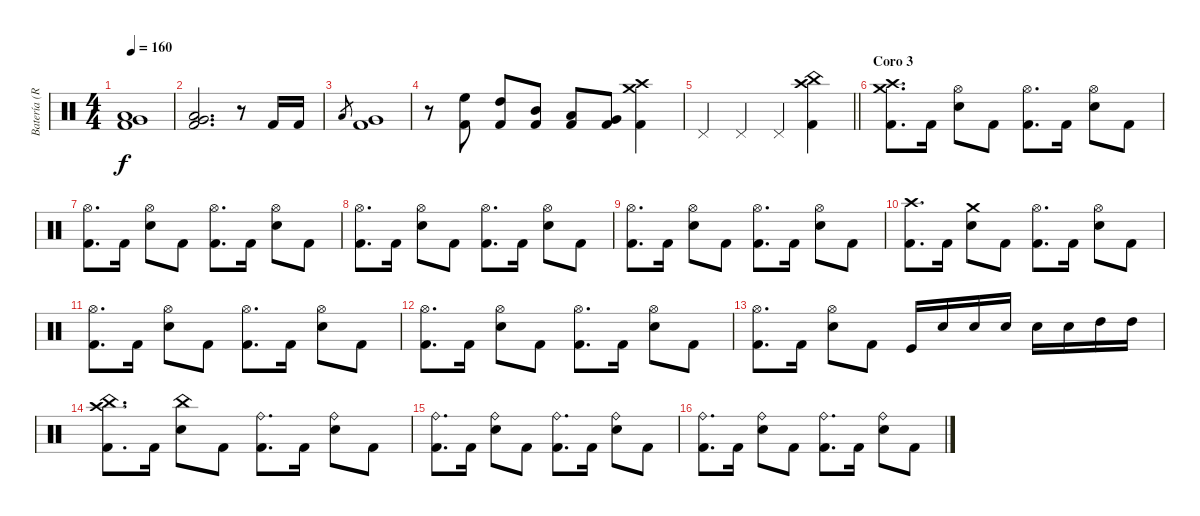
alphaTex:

\track ("Batería (Robert)" "Batería (R") {instrument percussion}
\staff {score}
\articulation defaults
\ts (4 4)
\tempo 160
\clef neutral
\ks c
("Kick (hit) 2" "Very Low Tom (hit)" "Low Tom (hit)").1{dy f} |
("Kick (hit) 2" "Very Low Tom (hit)" "Low Tom (hit)").2{d} r.8 "Kick (hit) 2".16 "Kick (hit) 2".16 |
"Low Tom (hit)".8{gr} ("Kick (hit) 2" "Very Low Tom (hit)").1 |
r.8 ("Kick (hit) 2" "High Floor Tom (hit)").8 ("High Tom (hit)" "Kick (hit) 2").8 ("Mid Tom (hit)" "Kick (hit) 2").8 ("Low Tom (hit)" "Kick (hit) 2").8 ("Very Low Tom (hit)" "Kick (hit) 2").8 ("Kick (hit) 2" "Crash medium (hit)" "Crash high (hit)").4 |
\barLineRight lightlight "Pedal Hi-Hat (hit)".4 "Pedal Hi-Hat (hit)".4 "Pedal Hi-Hat (hit)".4
("Kick (hit) 2" "China (hit)" "Crash high (hit)").4 |
\section ("" "Coro 3")
("Crash high (hit)" "Crash medium (hit)" "Kick (hit) 2").8{d} "Kick (hit) 2".16 ("Hi-Hat (open)" "Electric Snare (hit)").8 "Kick (hit) 2".8 ("Kick (hit) 2" "Hi-Hat (open)").8{d} "Kick (hit) 2".16 ("Hi-Hat (open)" "Electric Snare (hit)").8 "Kick (hit) 2".8 |
("Hi-Hat (open)" "Kick (hit) 2").8{d} "Kick (hit) 2".16 ("Hi-Hat (open)" "Electric Snare (hit)").8 "Kick (hit) 2".8 ("Kick (hit) 2" "Hi-Hat (open)").8{d} "Kick (hit) 2".16 ("Hi-Hat (open)" "Electric Snare (hit)").8 "Kick (hit) 2".8 |
("Hi-Hat (open)" "Kick (hit) 2").8{d} "Kick (hit) 2".16 ("Hi-Hat (open)" "Electric Snare (hit)").8 "Kick (hit) 2".8 ("Kick (hit) 2" "Hi-Hat (open)").8{d} "Kick (hit) 2".16 ("Hi-Hat (open)" "Electric Snare (hit)").8 "Kick (hit) 2".8 |
("Hi-Hat (open)" "Kick (hit) 2").8{d} "Kick (hit) 2".16 ("Hi-Hat (open)" "Electric Snare (hit)").8 "Kick (hit) 2".8 ("Kick (hit) 2" "Hi-Hat (open)").8{d} "Kick (hit) 2".16 ("Hi-Hat (open)" "Electric Snare (hit)").8 "Kick (hit) 2".8 |
("Crash high (hit)" "Kick (hit) 2").8{d} "Kick (hit) 2".16 ("Crash medium (hit)" "Electric Snare (hit)").8 "Kick (hit) 2".8 ("Kick (hit) 2" "Hi-Hat (open)").8{d} "Kick (hit) 2".16 ("Hi-Hat (open)" "Electric Snare (hit)").8 "Kick (hit) 2".8 |
("Hi-Hat (open)" "Kick (hit) 2").8{d} "Kick (hit) 2".16 ("Hi-Hat (open)" "Electric Snare (hit)").8 "Kick (hit) 2".8 ("Kick (hit) 2" "Hi-Hat (open)").8{d} "Kick (hit) 2".16 ("Hi-Hat (open)" "Electric Snare (hit)").8 "Kick (hit) 2".8 |
("Hi-Hat (open)" "Kick (hit) 2").8{d} "Kick (hit) 2".16 ("Hi-Hat (open)" "Electric Snare (hit)").8 "Kick (hit) 2".8 ("Kick (hit) 2" "Hi-Hat (open)").8{d} "Kick (hit) 2".16 ("Hi-Hat (open)" "Electric Snare (hit)").8 "Kick (hit) 2".8 |
("Hi-Hat (open)" "Kick (hit) 2").8{d} "Kick (hit) 2".16 ("Hi-Hat (open)" "Electric Snare (hit)").8 "Kick (hit) 2".8 "Kick (hit)".16 "Electric Snare (hit)".16 "Electric Snare (hit)".16 "Electric Snare (hit)".16 "Electric Snare (hit)".16 "Electric Snare (hit)".16 "High Tom (hit)".16 "High Tom (hit)".16 |
("Crash high (hit)" "China (hit)" "Kick (hit) 2").8{d} "Kick (hit) 2".16 ("China (hit)" "Electric Snare (hit)").8 "Kick (hit) 2".8 ("Kick (hit) 2" "Ride (bell)").8{d} "Kick (hit) 2".16 ("Ride (bell)" "Electric Snare (hit)").8 "Kick (hit) 2".8 |
("Ride (bell)" "Kick (hit) 2").8{d} "Kick (hit) 2".16 ("Ride (bell)" "Electric Snare (hit)").8 "Kick (hit) 2".8 ("Kick (hit) 2" "Ride (bell)").8{d} "Kick (hit) 2".16 ("Ride (bell)" "Electric Snare (hit)").8 "Kick (hit) 2".8 |
("Ride (bell)" "Kick (hit) 2").8{d} "Kick (hit) 2".16 ("Ride (bell)" "Electric Snare (hit)").8 "Kick (hit) 2".8 ("Kick (hit) 2" "Ride (bell)").8{d} "Kick (hit) 2".16 ("Ride (bell)" "Electric Snare (hit)").8 "Kick (hit) 2".8
